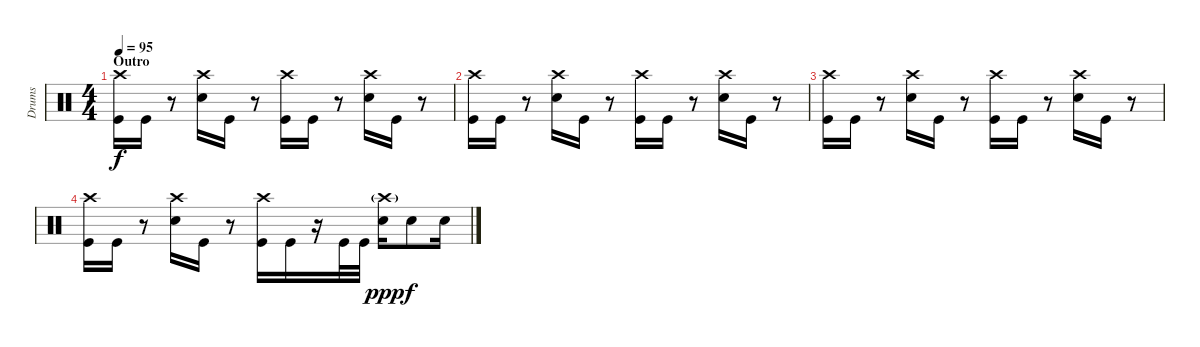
\track ("Drums" "Drums") {instrument percussion}
\staff {score}
\articulation defaults
\ts (4 4)
\section ("" "Outro")
\tempo 95
\clef neutral
\ks c
("Crash high (hit)" "Kick (hit)").16{dy f} "Kick (hit)".16 r.8 ("Crash high (hit)" "Snare (hit) 2").16 "Kick (hit)".16 r.8 ("Crash high (hit)" "Kick (hit)").16 "Kick (hit)".16 r.8 ("Crash high (hit)" "Snare (hit) 2").16 "Kick (hit)".16 r.8 |
("Crash high (hit)" "Kick (hit)").16 "Kick (hit)".16 r.8 ("Crash high (hit)" "Snare (hit) 2").16 "Kick (hit)".16 r.8 ("Crash high (hit)" "Kick (hit)").16 "Kick (hit)".16 r.8 ("Crash high (hit)" "Snare (hit) 2").16 "Kick (hit)".16 r.8 |
("Crash high (hit)" "Kick (hit)").16 "Kick (hit)".16 r.8 ("Crash high (hit)" "Snare (hit) 2").16 "Kick (hit)".16 r.8 ("Crash high (hit)" "Kick (hit)").16 "Kick (hit)".16 r.8 ("Crash high (hit)" "Snare (hit) 2").16 "Kick (hit)".16 r.8 |
("Crash high (hit)" "Kick (hit)").16 "Kick (hit)".16 r.8 ("Crash high (hit)" "Snare (hit) 2").16 "Kick (hit)".16 r.8 ("Crash high (hit)" "Kick (hit)").16 "Kick (hit)".16 r.16 "Kick (hit)".32 "Kick (hit)".32 ("Crash high (hit)"{g} "Snare (hit) 2").16{dy ppp} "Snare (hit) 2".8{dy f} "Snare (hit) 2".16
